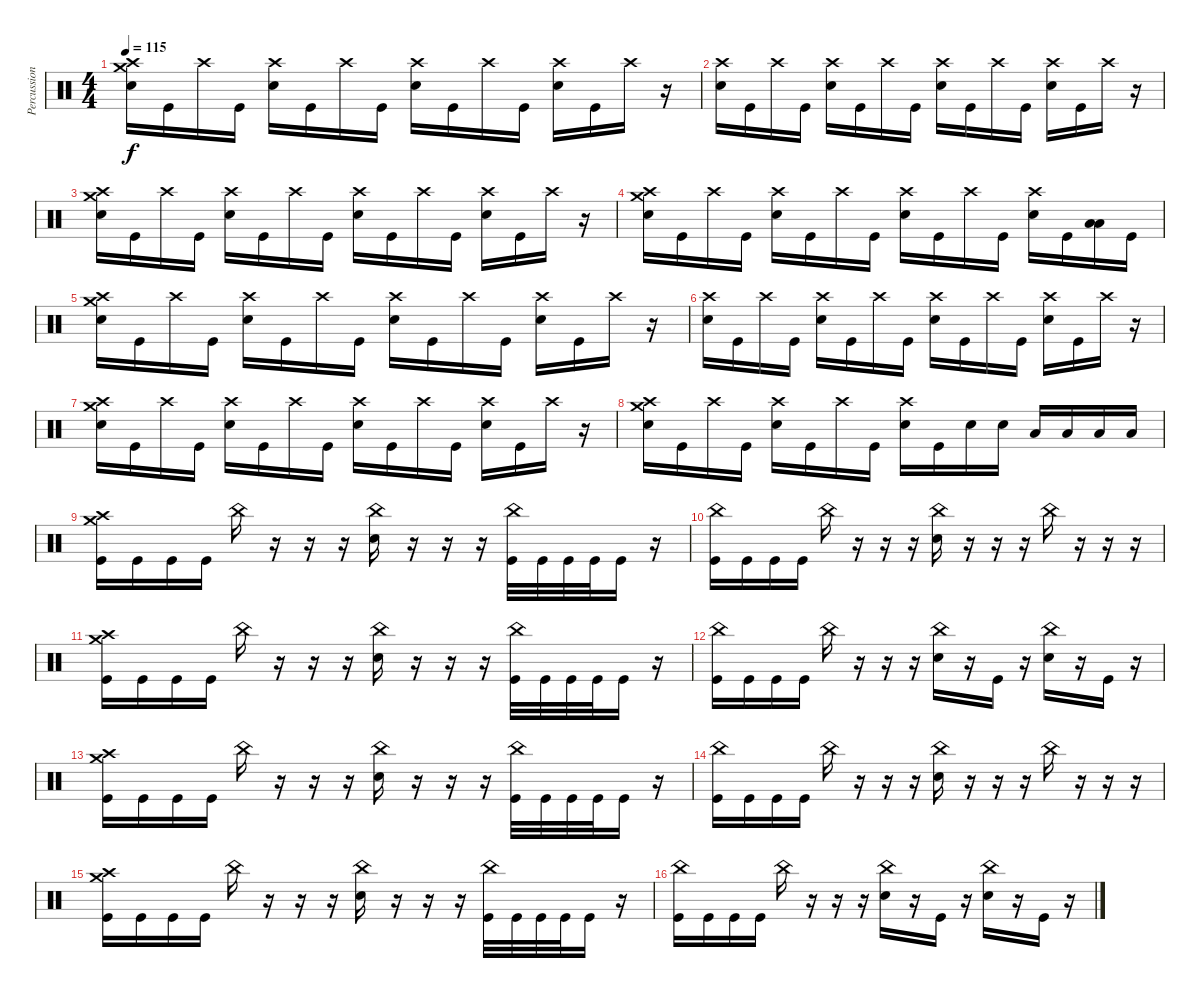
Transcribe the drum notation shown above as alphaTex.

\track ("Percussion" "Percussion") {instrument percussion}
\staff {score}
\articulation defaults
\ts (4 4)
\tempo 115
\clef neutral
\ks c
("Crash medium (hit)" "Crash high (hit)" "Snare (hit) 2").16{dy f} "Kick (hit)".16 "Crash high (hit)".16 "Kick (hit)".16 ("Crash high (hit)" "Snare (hit) 2").16 "Kick (hit)".16 "Crash high (hit)".16 "Kick (hit)".16 ("Crash high (hit)" "Snare (hit) 2").16 "Kick (hit)".16 "Crash high (hit)".16 "Kick (hit)".16 ("Crash high (hit)" "Snare (hit) 2").16 "Kick (hit)".16 "Crash high (hit)".16 r.16 |
("Crash high (hit)" "Snare (hit) 2").16 "Kick (hit)".16 "Crash high (hit)".16 "Kick (hit)".16 ("Crash high (hit)" "Snare (hit) 2").16 "Kick (hit)".16 "Crash high (hit)".16 "Kick (hit)".16 ("Crash high (hit)" "Snare (hit) 2").16 "Kick (hit)".16 "Crash high (hit)".16 "Kick (hit)".16 ("Crash high (hit)" "Snare (hit) 2").16 "Kick (hit)".16 "Crash high (hit)".16 r.16 |
("Crash medium (hit)" "Crash high (hit)" "Snare (hit) 2").16 "Kick (hit)".16 "Crash high (hit)".16 "Kick (hit)".16 ("Crash high (hit)" "Snare (hit) 2").16 "Kick (hit)".16 "Crash high (hit)".16 "Kick (hit)".16 ("Crash high (hit)" "Snare (hit) 2").16 "Kick (hit)".16 "Crash high (hit)".16 "Kick (hit)".16 ("Crash high (hit)" "Snare (hit) 2").16 "Kick (hit)".16 "Crash high (hit)".16 r.16 |
("Crash medium (hit)" "Crash high (hit)" "Snare (hit) 2").16 "Kick (hit)".16 "Crash high (hit)".16 "Kick (hit)".16 ("Crash high (hit)" "Snare (hit) 2").16 "Kick (hit)".16 "Crash high (hit)".16 "Kick (hit)".16 ("Crash high (hit)" "Snare (hit) 2").16 "Kick (hit)".16 "Crash high (hit)".16 "Kick (hit)".16 ("Crash high (hit)" "Snare (hit) 2").16 "Kick (hit)".16 ("Low Tom (hit)" "Low Floor Tom (hit)").16 "Kick (hit)".16 |
("Crash medium (hit)" "Crash high (hit)" "Snare (hit) 2").16 "Kick (hit)".16 "Crash high (hit)".16 "Kick (hit)".16 ("Crash high (hit)" "Snare (hit) 2").16 "Kick (hit)".16 "Crash high (hit)".16 "Kick (hit)".16 ("Crash high (hit)" "Snare (hit) 2").16 "Kick (hit)".16 "Crash high (hit)".16 "Kick (hit)".16 ("Crash high (hit)" "Snare (hit) 2").16 "Kick (hit)".16 "Crash high (hit)".16 r.16 |
("Crash high (hit)" "Snare (hit) 2").16 "Kick (hit)".16 "Crash high (hit)".16 "Kick (hit)".16 ("Crash high (hit)" "Snare (hit) 2").16 "Kick (hit)".16 "Crash high (hit)".16 "Kick (hit)".16 ("Crash high (hit)" "Snare (hit) 2").16 "Kick (hit)".16 "Crash high (hit)".16 "Kick (hit)".16 ("Crash high (hit)" "Snare (hit) 2").16 "Kick (hit)".16 "Crash high (hit)".16 r.16 |
("Crash medium (hit)" "Crash high (hit)" "Snare (hit) 2").16 "Kick (hit)".16 "Crash high (hit)".16 "Kick (hit)".16 ("Crash high (hit)" "Snare (hit) 2").16 "Kick (hit)".16 "Crash high (hit)".16 "Kick (hit)".16 ("Crash high (hit)" "Snare (hit) 2").16 "Kick (hit)".16 "Crash high (hit)".16 "Kick (hit)".16 ("Crash high (hit)" "Snare (hit) 2").16 "Kick (hit)".16 "Crash high (hit)".16 r.16 |
("Crash medium (hit)" "Crash high (hit)" "Snare (hit) 2").16 "Kick (hit)".16 "Crash high (hit)".16 "Kick (hit)".16 ("Crash high (hit)" "Snare (hit) 2").16 "Kick (hit)".16 "Crash high (hit)".16 "Kick (hit)".16 ("Crash high (hit)" "Snare (hit) 2").16 "Kick (hit)".16 "Snare (hit) 2".16 "Snare (hit) 2".16 "Low Tom (hit)".16 "Low Tom (hit)".16 "Low Floor Tom (hit)".16 "Low Floor Tom (hit)".16 |
("Crash medium (hit)" "Crash high (hit)" "Kick (hit)").16 "Kick (hit)".16 "Kick (hit)".16 "Kick (hit)".16 "China (hit)".16 r.16 r.16 r.16 ("China (hit)" "Snare (hit) 2").16 r.16 r.16 r.16 ("China (hit)" "Kick (hit)").32 "Kick (hit)".32 "Kick (hit)".32 "Kick (hit)".32 "Kick (hit)".16 r.16 |
("China (hit)" "Kick (hit)").16 "Kick (hit)".16 "Kick (hit)".16 "Kick (hit)".16 "China (hit)".16 r.16 r.16 r.16 ("China (hit)" "Snare (hit) 2").16 r.16 r.16 r.16 "China (hit)".16 r.16 r.16 r.16 |
("Crash medium (hit)" "Crash high (hit)" "Kick (hit)").16 "Kick (hit)".16 "Kick (hit)".16 "Kick (hit)".16 "China (hit)".16 r.16 r.16 r.16 ("China (hit)" "Snare (hit) 2").16 r.16 r.16 r.16 ("China (hit)" "Kick (hit)").32 "Kick (hit)".32 "Kick (hit)".32 "Kick (hit)".32 "Kick (hit)".16 r.16 |
("China (hit)" "Kick (hit)").16 "Kick (hit)".16 "Kick (hit)".16 "Kick (hit)".16 "China (hit)".16 r.16 r.16 r.16 ("China (hit)" "Snare (hit) 2").16 r.16 "Kick (hit)".16 r.16 ("China (hit)" "Snare (hit) 2").16 r.16 "Kick (hit)".16 r.16 |
("Crash medium (hit)" "Crash high (hit)" "Kick (hit)").16 "Kick (hit)".16 "Kick (hit)".16 "Kick (hit)".16 "China (hit)".16 r.16 r.16 r.16 ("China (hit)" "Snare (hit) 2").16 r.16 r.16 r.16 ("China (hit)" "Kick (hit)").32 "Kick (hit)".32 "Kick (hit)".32 "Kick (hit)".32 "Kick (hit)".16 r.16 |
("China (hit)" "Kick (hit)").16 "Kick (hit)".16 "Kick (hit)".16 "Kick (hit)".16 "China (hit)".16 r.16 r.16 r.16 ("China (hit)" "Snare (hit) 2").16 r.16 r.16 r.16 "China (hit)".16 r.16 r.16 r.16 |
("Crash medium (hit)" "Crash high (hit)" "Kick (hit)").16 "Kick (hit)".16 "Kick (hit)".16 "Kick (hit)".16 "China (hit)".16 r.16 r.16 r.16 ("China (hit)" "Snare (hit) 2").16 r.16 r.16 r.16 ("China (hit)" "Kick (hit)").32 "Kick (hit)".32 "Kick (hit)".32 "Kick (hit)".32 "Kick (hit)".16 r.16 |
("China (hit)" "Kick (hit)").16 "Kick (hit)".16 "Kick (hit)".16 "Kick (hit)".16 "China (hit)".16 r.16 r.16 r.16 ("China (hit)" "Snare (hit) 2").16 r.16 "Kick (hit)".16 r.16 ("China (hit)" "Snare (hit) 2").16 r.16 "Kick (hit)".16 r.16
